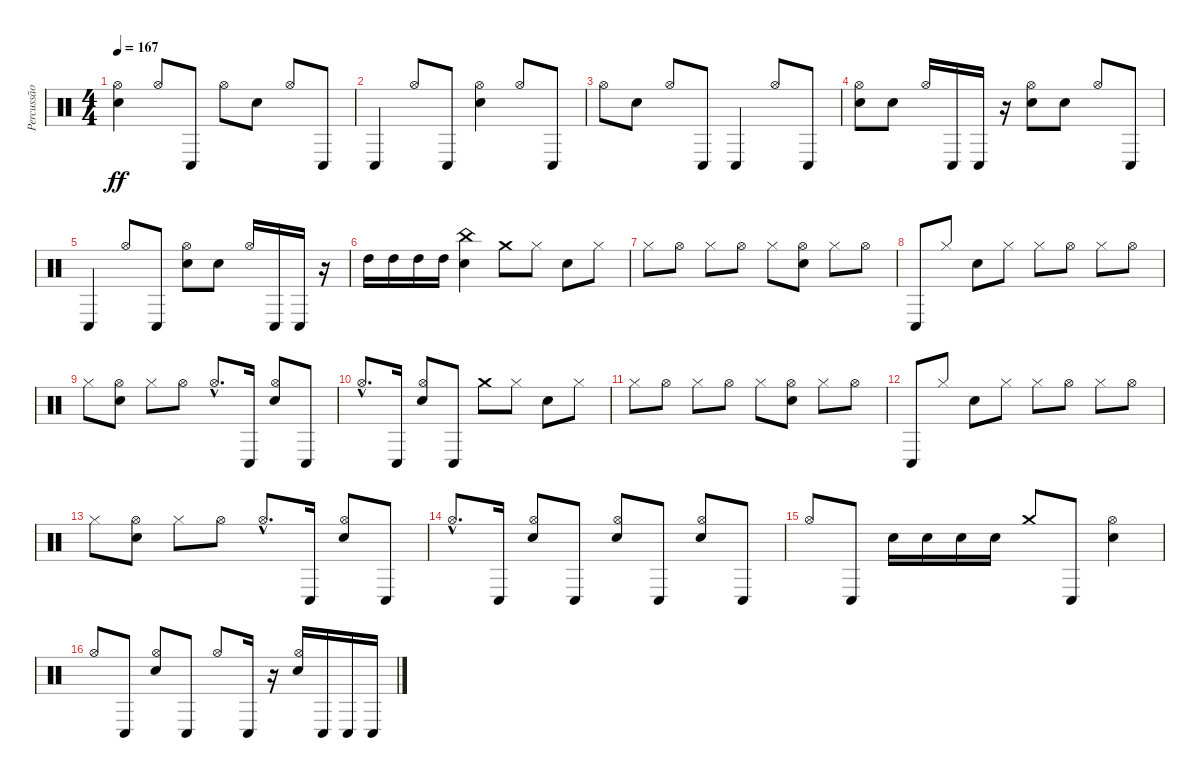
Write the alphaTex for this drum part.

\track ("Percussão" "Percussão") {instrument percussion}
\staff {score}
\articulation defaults
\ts (4 4)
\tempo 167
\clef neutral
\ks c
("Electric Snare (hit)" "Hi-Hat (open)").4{dy ff} "Hi-Hat (open)".8 "Conga low (hit)".8 "Hi-Hat (open)".8 "Electric Snare (hit)".8 "Hi-Hat (open)".8 "Conga low (hit)".8 |
"Conga low (hit)".4 "Hi-Hat (open)".8 "Conga low (hit)".8 ("Electric Snare (hit)" "Hi-Hat (open)").4 "Hi-Hat (open)".8 "Conga low (hit)".8 |
"Hi-Hat (open)".8 "Electric Snare (hit)".8 "Hi-Hat (open)".8 "Conga low (hit)".8 "Conga low (hit)".4 "Hi-Hat (open)".8 "Conga low (hit)".8 |
("Electric Snare (hit)" "Hi-Hat (open)").8 "Electric Snare (hit)".8 "Hi-Hat (open)".16 "Conga low (hit)".16 "Conga low (hit)".16 r.16 ("Electric Snare (hit)" "Hi-Hat (open)").8 "Electric Snare (hit)".8 "Hi-Hat (open)".8 "Conga low (hit)".8 |
"Conga low (hit)".4 "Hi-Hat (open)".8 "Conga low (hit)".8 ("Electric Snare (hit)" "Hi-Hat (open)").8 "Electric Snare (hit)".8 "Hi-Hat (open)".16 "Conga low (hit)".16 "Conga low (hit)".16 r.16 |
"High Tom (hit)".16 "High Tom (hit)".16 "High Tom (hit)".16 "High Tom (hit)".16 ("Electric Snare (hit)" "China (hit)").4 "Crash medium (hit)".8 "Hi-Hat (closed)".8 "Electric Snare (hit)".8 "Hi-Hat (closed)".8 |
"Hi-Hat (closed)".8 "Hi-Hat (open)".8 "Hi-Hat (closed)".8 "Hi-Hat (open)".8 "Hi-Hat (closed)".8 ("Electric Snare (hit)" "Hi-Hat (open)").8 "Hi-Hat (closed)".8 "Hi-Hat (open)".8 |
"Conga low (hit)".8 "Hi-Hat (closed)".8 "Electric Snare (hit)".8 "Hi-Hat (closed)".8 "Hi-Hat (closed)".8 "Hi-Hat (open)".8 "Hi-Hat (closed)".8 "Hi-Hat (open)".8 |
"Hi-Hat (closed)".8 ("Electric Snare (hit)" "Hi-Hat (open)").8 "Hi-Hat (closed)".8 "Hi-Hat (open)".8 "Hi-Hat (open)"{hac}.8{d} "Conga low (hit)".16 ("Electric Snare (hit)" "Hi-Hat (open)").8 "Conga low (hit)".8 |
"Hi-Hat (open)"{hac}.8{d} "Conga low (hit)".16 ("Electric Snare (hit)" "Hi-Hat (open)").8 "Conga low (hit)".8 "Crash medium (hit)".8 "Hi-Hat (closed)".8 "Electric Snare (hit)".8 "Hi-Hat (closed)".8 |
"Hi-Hat (closed)".8 "Hi-Hat (open)".8 "Hi-Hat (closed)".8 "Hi-Hat (open)".8 "Hi-Hat (closed)".8 ("Electric Snare (hit)" "Hi-Hat (open)").8 "Hi-Hat (closed)".8 "Hi-Hat (open)".8 |
"Conga low (hit)".8 "Hi-Hat (closed)".8 "Electric Snare (hit)".8 "Hi-Hat (closed)".8 "Hi-Hat (closed)".8 "Hi-Hat (open)".8 "Hi-Hat (closed)".8 "Hi-Hat (open)".8 |
"Hi-Hat (closed)".8 ("Electric Snare (hit)" "Hi-Hat (open)").8 "Hi-Hat (closed)".8 "Hi-Hat (open)".8 "Hi-Hat (open)"{hac}.8{d} "Conga low (hit)".16 ("Electric Snare (hit)" "Hi-Hat (open)").8 "Conga low (hit)".8 |
"Hi-Hat (open)"{hac}.8{d} "Conga low (hit)".16 ("Electric Snare (hit)" "Hi-Hat (open)").8 "Conga low (hit)".8 ("Electric Snare (hit)" "Hi-Hat (open)").8 "Conga low (hit)".8 ("Electric Snare (hit)" "Hi-Hat (open)").8 "Conga low (hit)".8 |
"Hi-Hat (open)".8 "Conga low (hit)".8 "Electric Snare (hit)".16 "Electric Snare (hit)".16 "Electric Snare (hit)".16 "Electric Snare (hit)".16 "Crash medium (hit)".8 "Conga low (hit)".8 ("Electric Snare (hit)" "Hi-Hat (open)").4 |
"Hi-Hat (open)".8 "Conga low (hit)".8 ("Electric Snare (hit)" "Hi-Hat (open)").8 "Conga low (hit)".8 "Hi-Hat (open)".8 "Conga low (hit)".16 r.16 ("Electric Snare (hit)" "Hi-Hat (open)").16 "Conga low (hit)".16 "Conga low (hit)".16 "Conga low (hit)".16
